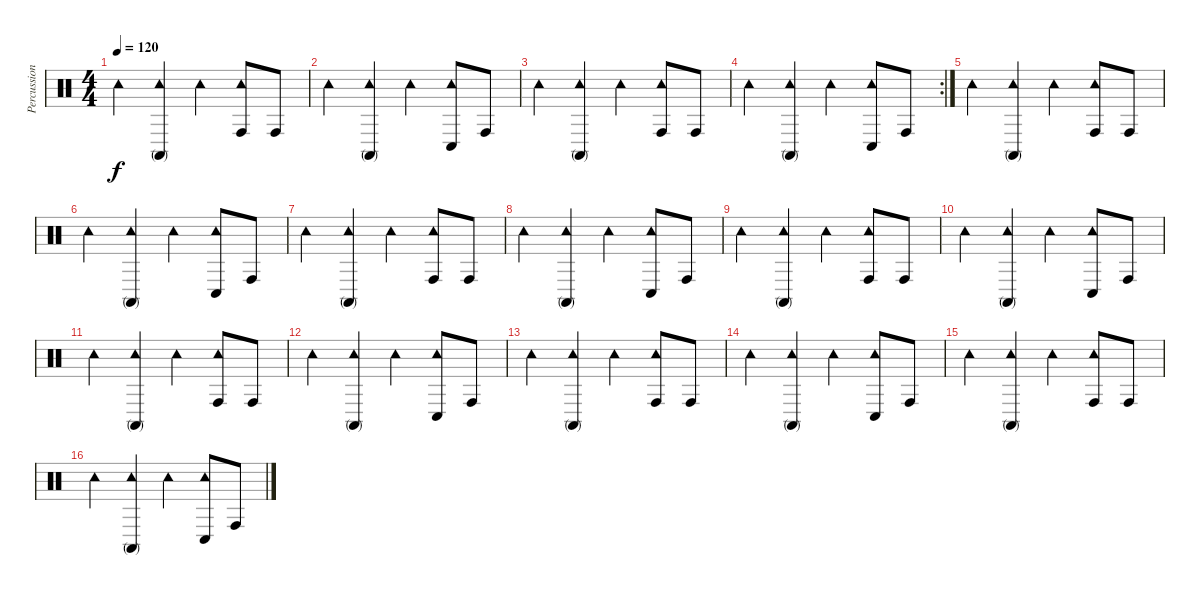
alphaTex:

\track ("Percussion" "Percussion") {instrument percussion}
\staff {score}
\articulation defaults
\ts (4 4)
\tempo 120
\clef neutral
\ks c "Tambourine (hit)".4{dy f}
("Conga high (mute)" "Tambourine (hit)").4 "Tambourine (hit)".4 ("Conga high (hit)" "Tambourine (hit)").8 "Conga high (hit)".8 |
"Tambourine (hit)".4 ("Conga high (mute)" "Tambourine (hit)").4 "Tambourine (hit)".4 ("Conga low (hit)" "Tambourine (hit)").8 "Conga high (hit)".8 |
"Tambourine (hit)".4 ("Conga high (mute)" "Tambourine (hit)").4 "Tambourine (hit)".4 ("Conga high (hit)" "Tambourine (hit)").8 "Conga high (hit)".8 |
\rc 2 "Tambourine (hit)".4
("Conga high (mute)" "Tambourine (hit)").4 "Tambourine (hit)".4 ("Conga low (hit)" "Tambourine (hit)").8 "Conga high (hit)".8 |
"Tambourine (hit)".4 ("Conga high (mute)" "Tambourine (hit)").4 "Tambourine (hit)".4 ("Conga high (hit)" "Tambourine (hit)").8 "Conga high (hit)".8 |
"Tambourine (hit)".4 ("Conga high (mute)" "Tambourine (hit)").4 "Tambourine (hit)".4 ("Conga low (hit)" "Tambourine (hit)").8 "Conga high (hit)".8 |
"Tambourine (hit)".4 ("Conga high (mute)" "Tambourine (hit)").4 "Tambourine (hit)".4 ("Conga high (hit)" "Tambourine (hit)").8 "Conga high (hit)".8 |
"Tambourine (hit)".4 ("Conga high (mute)" "Tambourine (hit)").4 "Tambourine (hit)".4 ("Conga low (hit)" "Tambourine (hit)").8 "Conga high (hit)".8 |
"Tambourine (hit)".4 ("Conga high (mute)" "Tambourine (hit)").4 "Tambourine (hit)".4 ("Conga high (hit)" "Tambourine (hit)").8 "Conga high (hit)".8 |
"Tambourine (hit)".4 ("Conga high (mute)" "Tambourine (hit)").4 "Tambourine (hit)".4 ("Conga low (hit)" "Tambourine (hit)").8 "Conga high (hit)".8 |
"Tambourine (hit)".4 ("Conga high (mute)" "Tambourine (hit)").4 "Tambourine (hit)".4 ("Conga high (hit)" "Tambourine (hit)").8 "Conga high (hit)".8 |
"Tambourine (hit)".4 ("Conga high (mute)" "Tambourine (hit)").4 "Tambourine (hit)".4 ("Conga low (hit)" "Tambourine (hit)").8 "Conga high (hit)".8 |
"Tambourine (hit)".4 ("Conga high (mute)" "Tambourine (hit)").4 "Tambourine (hit)".4 ("Conga high (hit)" "Tambourine (hit)").8 "Conga high (hit)".8 |
"Tambourine (hit)".4 ("Conga high (mute)" "Tambourine (hit)").4 "Tambourine (hit)".4 ("Conga low (hit)" "Tambourine (hit)").8 "Conga high (hit)".8 |
"Tambourine (hit)".4 ("Conga high (mute)" "Tambourine (hit)").4 "Tambourine (hit)".4 ("Conga high (hit)" "Tambourine (hit)").8 "Conga high (hit)".8 |
"Tambourine (hit)".4 ("Conga high (mute)" "Tambourine (hit)").4 "Tambourine (hit)".4 ("Conga low (hit)" "Tambourine (hit)").8 "Conga high (hit)".8
